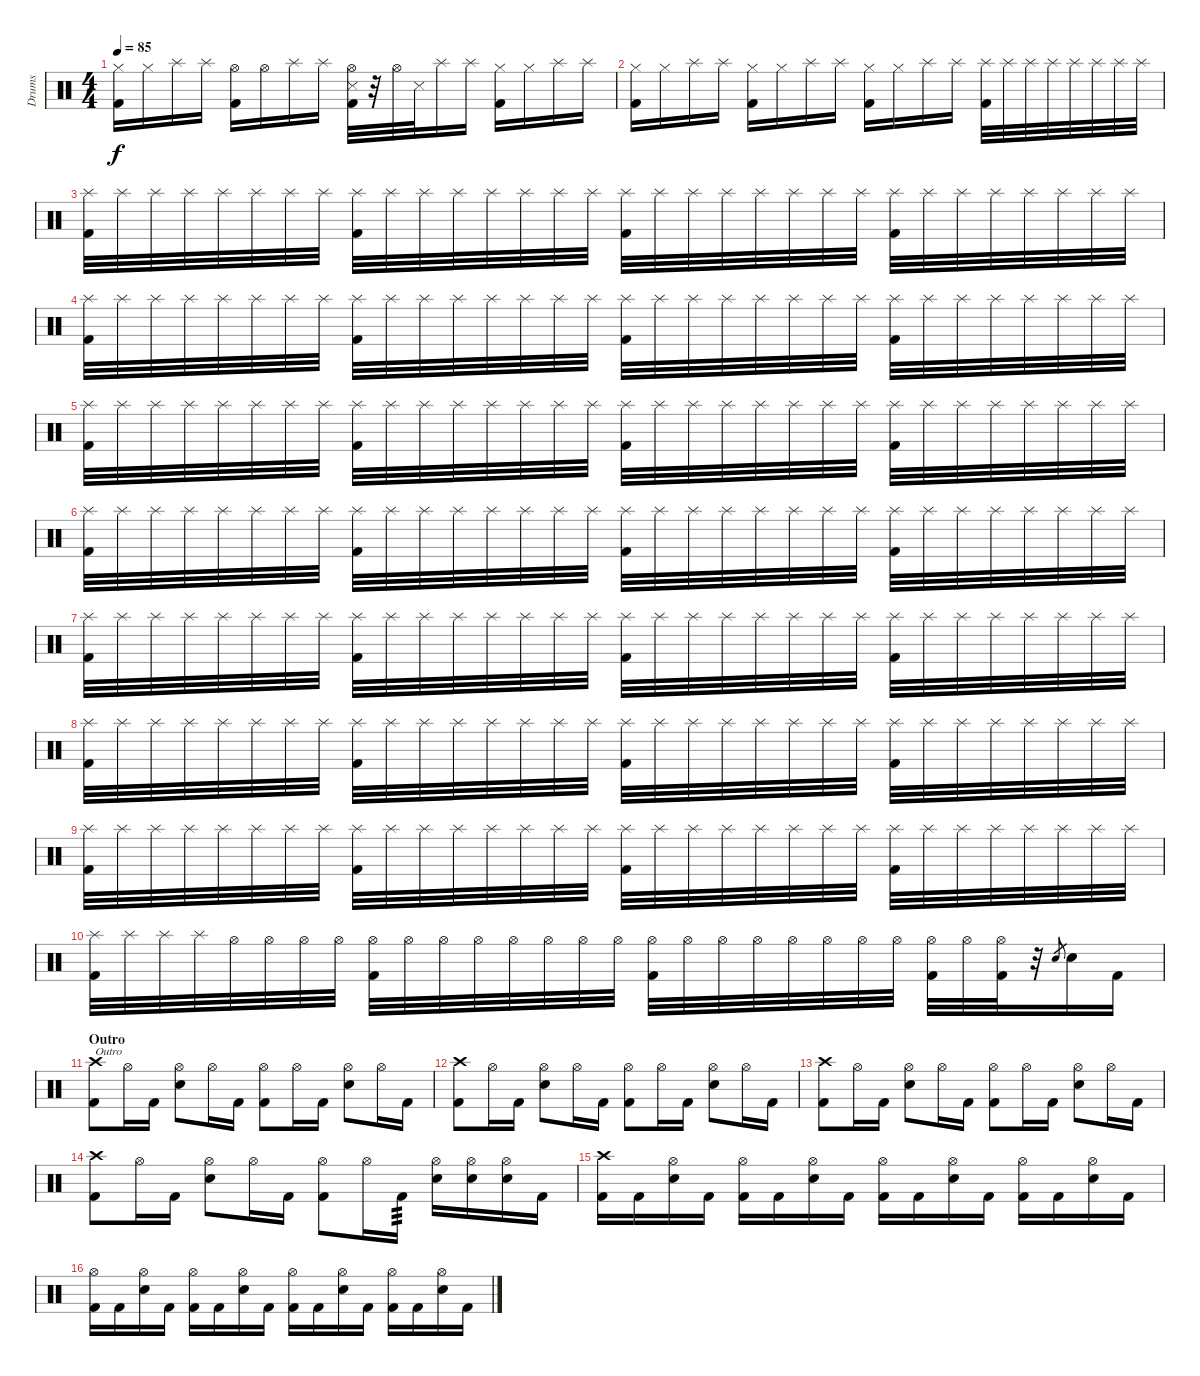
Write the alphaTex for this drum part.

\track ("Drums" "Drums") {instrument percussion}
\staff {score}
\articulation defaults
\ts (4 4)
\tempo 85
\clef neutral
\ks c
("Hi-Hat (closed)" "Kick (hit) 2").16{dy f} "Hi-Hat (closed)".16 "Splash (hit)".16 "Splash (hit)".16 ("Hi-Hat (open)" "Kick (hit) 2").16 "Hi-Hat (open)".16 "Splash (hit)".16 "Splash (hit)".16 ("Hi-Hat (open)" "Snare (side stick) 3" "Kick (hit) 2").32 r.32 "Hi-Hat (open)".32 "Snare (side stick) 3".32 "Splash (hit)".16 "Splash (hit)".16 ("Hi-Hat (closed)" "Kick (hit) 2").16 "Hi-Hat (closed)".16 "Splash (hit)".16 "Splash (hit)".16 |
("Hi-Hat (closed)" "Kick (hit) 2").16 "Hi-Hat (closed)".16 "Splash (hit)".16 "Splash (hit)".16 ("Hi-Hat (closed)" "Kick (hit) 2").16 "Hi-Hat (closed)".16 "Splash (hit)".16 "Splash (hit)".16 ("Hi-Hat (closed)" "Kick (hit) 2").16 "Hi-Hat (closed)".16 "Splash (hit)".16 "Splash (hit)".16 ("Splash (hit)" "Kick (hit) 2").32 "Splash (hit)".32 "Splash (hit)".32 "Splash (hit)".32 "Splash (hit)".32 "Splash (hit)".32 "Splash (hit)".32 "Splash (hit)".32 |
("Splash (hit)" "Kick (hit) 2").32 "Splash (hit)".32 "Splash (hit)".32 "Splash (hit)".32 "Splash (hit)".32 "Splash (hit)".32 "Splash (hit)".32 "Splash (hit)".32 ("Splash (hit)" "Kick (hit) 2").32 "Splash (hit)".32 "Splash (hit)".32 "Splash (hit)".32 "Splash (hit)".32 "Splash (hit)".32 "Splash (hit)".32 "Splash (hit)".32 ("Splash (hit)" "Kick (hit) 2").32 "Splash (hit)".32 "Splash (hit)".32 "Splash (hit)".32 "Splash (hit)".32 "Splash (hit)".32 "Splash (hit)".32 "Splash (hit)".32 ("Splash (hit)" "Kick (hit) 2").32 "Splash (hit)".32 "Splash (hit)".32 "Splash (hit)".32 "Splash (hit)".32 "Splash (hit)".32 "Splash (hit)".32 "Splash (hit)".32 |
("Splash (hit)" "Kick (hit) 2").32 "Splash (hit)".32 "Splash (hit)".32 "Splash (hit)".32 "Splash (hit)".32 "Splash (hit)".32 "Splash (hit)".32 "Splash (hit)".32 ("Splash (hit)" "Kick (hit) 2").32 "Splash (hit)".32 "Splash (hit)".32 "Splash (hit)".32 "Splash (hit)".32 "Splash (hit)".32 "Splash (hit)".32 "Splash (hit)".32 ("Splash (hit)" "Kick (hit) 2").32 "Splash (hit)".32 "Splash (hit)".32 "Splash (hit)".32 "Splash (hit)".32 "Splash (hit)".32 "Splash (hit)".32 "Splash (hit)".32 ("Splash (hit)" "Kick (hit) 2").32 "Splash (hit)".32 "Splash (hit)".32 "Splash (hit)".32 "Splash (hit)".32 "Splash (hit)".32 "Splash (hit)".32 "Splash (hit)".32 |
("Splash (hit)" "Kick (hit) 2").32 "Splash (hit)".32 "Splash (hit)".32 "Splash (hit)".32 "Splash (hit)".32 "Splash (hit)".32 "Splash (hit)".32 "Splash (hit)".32 ("Splash (hit)" "Kick (hit) 2").32 "Splash (hit)".32 "Splash (hit)".32 "Splash (hit)".32 "Splash (hit)".32 "Splash (hit)".32 "Splash (hit)".32 "Splash (hit)".32 ("Splash (hit)" "Kick (hit) 2").32 "Splash (hit)".32 "Splash (hit)".32 "Splash (hit)".32 "Splash (hit)".32 "Splash (hit)".32 "Splash (hit)".32 "Splash (hit)".32 ("Splash (hit)" "Kick (hit) 2").32 "Splash (hit)".32 "Splash (hit)".32 "Splash (hit)".32 "Splash (hit)".32 "Splash (hit)".32 "Splash (hit)".32 "Splash (hit)".32 |
("Splash (hit)" "Kick (hit) 2").32 "Splash (hit)".32 "Splash (hit)".32 "Splash (hit)".32 "Splash (hit)".32 "Splash (hit)".32 "Splash (hit)".32 "Splash (hit)".32 ("Splash (hit)" "Kick (hit) 2").32 "Splash (hit)".32 "Splash (hit)".32 "Splash (hit)".32 "Splash (hit)".32 "Splash (hit)".32 "Splash (hit)".32 "Splash (hit)".32 ("Splash (hit)" "Kick (hit) 2").32 "Splash (hit)".32 "Splash (hit)".32 "Splash (hit)".32 "Splash (hit)".32 "Splash (hit)".32 "Splash (hit)".32 "Splash (hit)".32 ("Splash (hit)" "Kick (hit) 2").32 "Splash (hit)".32 "Splash (hit)".32 "Splash (hit)".32 "Splash (hit)".32 "Splash (hit)".32 "Splash (hit)".32 "Splash (hit)".32 |
("Splash (hit)" "Kick (hit) 2").32 "Splash (hit)".32 "Splash (hit)".32 "Splash (hit)".32 "Splash (hit)".32 "Splash (hit)".32 "Splash (hit)".32 "Splash (hit)".32 ("Splash (hit)" "Kick (hit) 2").32 "Splash (hit)".32 "Splash (hit)".32 "Splash (hit)".32 "Splash (hit)".32 "Splash (hit)".32 "Splash (hit)".32 "Splash (hit)".32 ("Splash (hit)" "Kick (hit) 2").32 "Splash (hit)".32 "Splash (hit)".32 "Splash (hit)".32 "Splash (hit)".32 "Splash (hit)".32 "Splash (hit)".32 "Splash (hit)".32 ("Splash (hit)" "Kick (hit) 2").32 "Splash (hit)".32 "Splash (hit)".32 "Splash (hit)".32 "Splash (hit)".32 "Splash (hit)".32 "Splash (hit)".32 "Splash (hit)".32 |
("Splash (hit)" "Kick (hit) 2").32 "Splash (hit)".32 "Splash (hit)".32 "Splash (hit)".32 "Splash (hit)".32 "Splash (hit)".32 "Splash (hit)".32 "Splash (hit)".32 ("Splash (hit)" "Kick (hit) 2").32 "Splash (hit)".32 "Splash (hit)".32 "Splash (hit)".32 "Splash (hit)".32 "Splash (hit)".32 "Splash (hit)".32 "Splash (hit)".32 ("Splash (hit)" "Kick (hit) 2").32 "Splash (hit)".32 "Splash (hit)".32 "Splash (hit)".32 "Splash (hit)".32 "Splash (hit)".32 "Splash (hit)".32 "Splash (hit)".32 ("Splash (hit)" "Kick (hit) 2").32 "Splash (hit)".32 "Splash (hit)".32 "Splash (hit)".32 "Splash (hit)".32 "Splash (hit)".32 "Splash (hit)".32 "Splash (hit)".32 |
("Splash (hit)" "Kick (hit) 2").32 "Splash (hit)".32 "Splash (hit)".32 "Splash (hit)".32 "Splash (hit)".32 "Splash (hit)".32 "Splash (hit)".32 "Splash (hit)".32 ("Splash (hit)" "Kick (hit) 2").32 "Splash (hit)".32 "Splash (hit)".32 "Splash (hit)".32 "Splash (hit)".32 "Splash (hit)".32 "Splash (hit)".32 "Splash (hit)".32 ("Splash (hit)" "Kick (hit) 2").32 "Splash (hit)".32 "Splash (hit)".32 "Splash (hit)".32 "Splash (hit)".32 "Splash (hit)".32 "Splash (hit)".32 "Splash (hit)".32 ("Splash (hit)" "Kick (hit) 2").32 "Splash (hit)".32 "Splash (hit)".32 "Splash (hit)".32 "Splash (hit)".32 "Splash (hit)".32 "Splash (hit)".32 "Splash (hit)".32 |
("Splash (hit)" "Kick (hit) 2").32 "Splash (hit)".32 "Splash (hit)".32 "Splash (hit)".32 "Hi-Hat (open)".32 "Hi-Hat (open)".32 "Hi-Hat (open)".32 "Hi-Hat (open)".32 ("Hi-Hat (open)" "Kick (hit) 2").32 "Hi-Hat (open)".32 "Hi-Hat (open)".32 "Hi-Hat (open)".32 "Hi-Hat (open)".32 "Hi-Hat (open)".32 "Hi-Hat (open)".32 "Hi-Hat (open)".32 ("Hi-Hat (open)" "Kick (hit) 2").32 "Hi-Hat (open)".32 "Hi-Hat (open)".32 "Hi-Hat (open)".32 "Hi-Hat (open)".32 "Hi-Hat (open)".32 "Hi-Hat (open)".32 "Hi-Hat (open)".32 ("Hi-Hat (open)" "Kick (hit) 2").32 "Hi-Hat (open)".32 ("Hi-Hat (open)" "Kick (hit) 2").32 r.32 "Electric Snare (hit)".8{gr} "Electric Snare (hit)".16 "Kick (hit) 2".16 |
\section ("" "Outro")
("Crash high (hit)" "Kick (hit) 2").8{txt "Outro"} "Hi-Hat (open)".16 "Kick (hit) 2".16 ("Hi-Hat (open)" "Electric Snare (hit)").8 "Hi-Hat (open)".16 "Kick (hit) 2".16 ("Hi-Hat (open)" "Kick (hit) 2").8 "Hi-Hat (open)".16 "Kick (hit) 2".16 ("Hi-Hat (open)" "Electric Snare (hit)").8 "Hi-Hat (open)".16 "Kick (hit) 2".16 |
("Crash high (hit)" "Kick (hit) 2").8 "Hi-Hat (open)".16 "Kick (hit) 2".16 ("Hi-Hat (open)" "Electric Snare (hit)").8 "Hi-Hat (open)".16 "Kick (hit) 2".16 ("Hi-Hat (open)" "Kick (hit) 2").8 "Hi-Hat (open)".16 "Kick (hit) 2".16 ("Hi-Hat (open)" "Electric Snare (hit)").8 "Hi-Hat (open)".16 "Kick (hit) 2".16 |
("Crash high (hit)" "Kick (hit) 2").8 "Hi-Hat (open)".16 "Kick (hit) 2".16 ("Hi-Hat (open)" "Electric Snare (hit)").8 "Hi-Hat (open)".16 "Kick (hit) 2".16 ("Hi-Hat (open)" "Kick (hit) 2").8 "Hi-Hat (open)".16 "Kick (hit) 2".16 ("Hi-Hat (open)" "Electric Snare (hit)").8 "Hi-Hat (open)".16 "Kick (hit) 2".16 |
("Crash high (hit)" "Kick (hit) 2").8 "Hi-Hat (open)".16 "Kick (hit) 2".16 ("Hi-Hat (open)" "Electric Snare (hit)").8 "Hi-Hat (open)".16 "Kick (hit) 2".16 ("Hi-Hat (open)" "Kick (hit) 2").8 "Hi-Hat (open)".16 "Kick (hit) 2".16{tp 3} ("Hi-Hat (open)" "Electric Snare (hit)").16 ("Hi-Hat (open)" "Electric Snare (hit)").16 ("Hi-Hat (open)" "Electric Snare (hit)").16 "Kick (hit) 2".16 |
("Crash high (hit)" "Kick (hit) 2").16 "Kick (hit) 2".16 ("Hi-Hat (open)" "Electric Snare (hit)").16 "Kick (hit) 2".16 ("Hi-Hat (open)" "Kick (hit) 2").16 "Kick (hit) 2".16 ("Hi-Hat (open)" "Electric Snare (hit)").16 "Kick (hit) 2".16 ("Hi-Hat (open)" "Kick (hit) 2").16 "Kick (hit) 2".16 ("Hi-Hat (open)" "Electric Snare (hit)").16 "Kick (hit) 2".16 ("Hi-Hat (open)" "Kick (hit) 2").16 "Kick (hit) 2".16 ("Hi-Hat (open)" "Electric Snare (hit)").16 "Kick (hit) 2".16 |
("Hi-Hat (open)" "Kick (hit) 2").16 "Kick (hit) 2".16 ("Hi-Hat (open)" "Electric Snare (hit)").16 "Kick (hit) 2".16 ("Hi-Hat (open)" "Kick (hit) 2").16 "Kick (hit) 2".16 ("Hi-Hat (open)" "Electric Snare (hit)").16 "Kick (hit) 2".16 ("Hi-Hat (open)" "Kick (hit) 2").16 "Kick (hit) 2".16 ("Hi-Hat (open)" "Electric Snare (hit)").16 "Kick (hit) 2".16 ("Hi-Hat (open)" "Kick (hit) 2").16 "Kick (hit) 2".16 ("Hi-Hat (open)" "Electric Snare (hit)").16 "Kick (hit) 2".16
